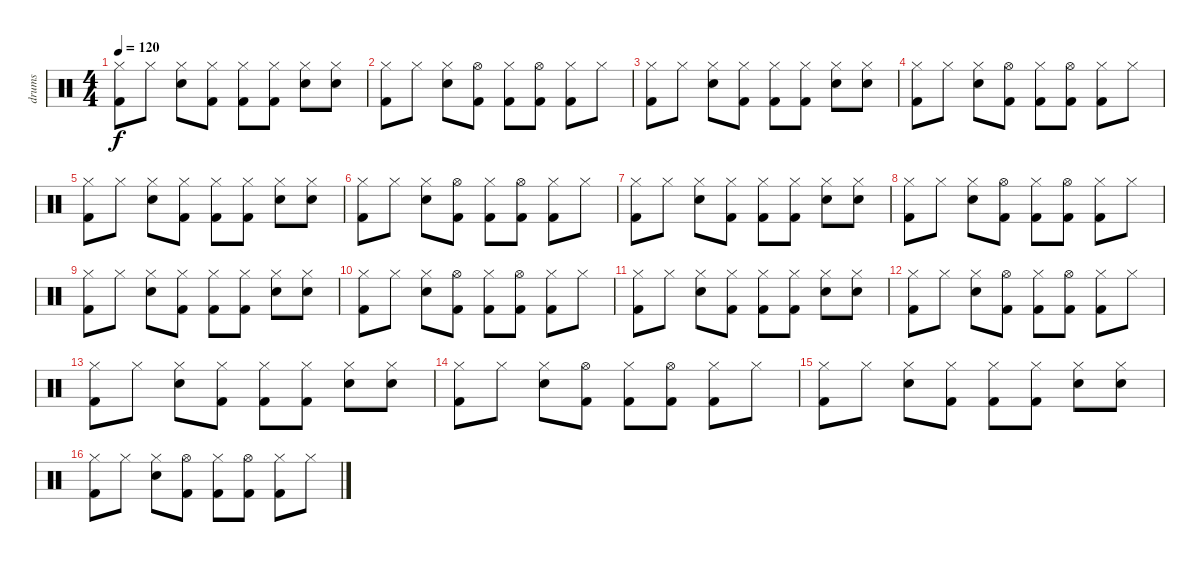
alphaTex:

\track ("drums" "drums") {instrument percussion}
\staff {score}
\articulation defaults
\ts (4 4)
\tempo 120
\clef neutral
\ks c
("Hi-Hat (closed)" "Kick (hit) 2").8{dy f} "Hi-Hat (closed)".8 ("Hi-Hat (closed)" "Snare (hit) 2").8 ("Hi-Hat (closed)" "Kick (hit) 2").8 ("Hi-Hat (closed)" "Kick (hit) 2").8 ("Hi-Hat (closed)" "Kick (hit) 2").8 ("Hi-Hat (closed)" "Snare (hit) 2").8 ("Hi-Hat (closed)" "Snare (hit) 2").8 |
("Hi-Hat (closed)" "Kick (hit) 2").8 "Hi-Hat (closed)".8 ("Hi-Hat (closed)" "Snare (hit) 2").8 ("Hi-Hat (open)" "Kick (hit) 2").8 ("Hi-Hat (closed)" "Kick (hit) 2").8 ("Hi-Hat (open)" "Kick (hit) 2").8 ("Hi-Hat (closed)" "Kick (hit) 2").8 "Hi-Hat (closed)".8 |
("Hi-Hat (closed)" "Kick (hit) 2").8 "Hi-Hat (closed)".8 ("Hi-Hat (closed)" "Snare (hit) 2").8 ("Hi-Hat (closed)" "Kick (hit) 2").8 ("Hi-Hat (closed)" "Kick (hit) 2").8 ("Hi-Hat (closed)" "Kick (hit) 2").8 ("Hi-Hat (closed)" "Snare (hit) 2").8 ("Hi-Hat (closed)" "Snare (hit) 2").8 |
("Hi-Hat (closed)" "Kick (hit) 2").8 "Hi-Hat (closed)".8 ("Hi-Hat (closed)" "Snare (hit) 2").8 ("Hi-Hat (open)" "Kick (hit) 2").8 ("Hi-Hat (closed)" "Kick (hit) 2").8 ("Hi-Hat (open)" "Kick (hit) 2").8 ("Hi-Hat (closed)" "Kick (hit) 2").8 "Hi-Hat (closed)".8 |
("Hi-Hat (closed)" "Kick (hit) 2").8 "Hi-Hat (closed)".8 ("Hi-Hat (closed)" "Snare (hit) 2").8 ("Hi-Hat (closed)" "Kick (hit) 2").8 ("Hi-Hat (closed)" "Kick (hit) 2").8 ("Hi-Hat (closed)" "Kick (hit) 2").8 ("Hi-Hat (closed)" "Snare (hit) 2").8 ("Hi-Hat (closed)" "Snare (hit) 2").8 |
("Hi-Hat (closed)" "Kick (hit) 2").8 "Hi-Hat (closed)".8 ("Hi-Hat (closed)" "Snare (hit) 2").8 ("Hi-Hat (open)" "Kick (hit) 2").8 ("Hi-Hat (closed)" "Kick (hit) 2").8 ("Hi-Hat (open)" "Kick (hit) 2").8 ("Hi-Hat (closed)" "Kick (hit) 2").8 "Hi-Hat (closed)".8 |
("Hi-Hat (closed)" "Kick (hit) 2").8 "Hi-Hat (closed)".8 ("Hi-Hat (closed)" "Snare (hit) 2").8 ("Hi-Hat (closed)" "Kick (hit) 2").8 ("Hi-Hat (closed)" "Kick (hit) 2").8 ("Hi-Hat (closed)" "Kick (hit) 2").8 ("Hi-Hat (closed)" "Snare (hit) 2").8 ("Hi-Hat (closed)" "Snare (hit) 2").8 |
("Hi-Hat (closed)" "Kick (hit) 2").8 "Hi-Hat (closed)".8 ("Hi-Hat (closed)" "Snare (hit) 2").8 ("Hi-Hat (open)" "Kick (hit) 2").8 ("Hi-Hat (closed)" "Kick (hit) 2").8 ("Hi-Hat (open)" "Kick (hit) 2").8 ("Hi-Hat (closed)" "Kick (hit) 2").8 "Hi-Hat (closed)".8 |
("Hi-Hat (closed)" "Kick (hit) 2").8 "Hi-Hat (closed)".8 ("Hi-Hat (closed)" "Snare (hit) 2").8 ("Hi-Hat (closed)" "Kick (hit) 2").8 ("Hi-Hat (closed)" "Kick (hit) 2").8 ("Hi-Hat (closed)" "Kick (hit) 2").8 ("Hi-Hat (closed)" "Snare (hit) 2").8 ("Hi-Hat (closed)" "Snare (hit) 2").8 |
("Hi-Hat (closed)" "Kick (hit) 2").8 "Hi-Hat (closed)".8 ("Hi-Hat (closed)" "Snare (hit) 2").8 ("Hi-Hat (open)" "Kick (hit) 2").8 ("Hi-Hat (closed)" "Kick (hit) 2").8 ("Hi-Hat (open)" "Kick (hit) 2").8 ("Hi-Hat (closed)" "Kick (hit) 2").8 "Hi-Hat (closed)".8 |
("Hi-Hat (closed)" "Kick (hit) 2").8 "Hi-Hat (closed)".8 ("Hi-Hat (closed)" "Snare (hit) 2").8 ("Hi-Hat (closed)" "Kick (hit) 2").8 ("Hi-Hat (closed)" "Kick (hit) 2").8 ("Hi-Hat (closed)" "Kick (hit) 2").8 ("Hi-Hat (closed)" "Snare (hit) 2").8 ("Hi-Hat (closed)" "Snare (hit) 2").8 |
("Hi-Hat (closed)" "Kick (hit) 2").8 "Hi-Hat (closed)".8 ("Hi-Hat (closed)" "Snare (hit) 2").8 ("Hi-Hat (open)" "Kick (hit) 2").8 ("Hi-Hat (closed)" "Kick (hit) 2").8 ("Hi-Hat (open)" "Kick (hit) 2").8 ("Hi-Hat (closed)" "Kick (hit) 2").8 "Hi-Hat (closed)".8 |
("Hi-Hat (closed)" "Kick (hit) 2").8 "Hi-Hat (closed)".8 ("Hi-Hat (closed)" "Snare (hit) 2").8 ("Hi-Hat (closed)" "Kick (hit) 2").8 ("Hi-Hat (closed)" "Kick (hit) 2").8 ("Hi-Hat (closed)" "Kick (hit) 2").8 ("Hi-Hat (closed)" "Snare (hit) 2").8 ("Hi-Hat (closed)" "Snare (hit) 2").8 |
("Hi-Hat (closed)" "Kick (hit) 2").8 "Hi-Hat (closed)".8 ("Hi-Hat (closed)" "Snare (hit) 2").8 ("Hi-Hat (open)" "Kick (hit) 2").8 ("Hi-Hat (closed)" "Kick (hit) 2").8 ("Hi-Hat (open)" "Kick (hit) 2").8 ("Hi-Hat (closed)" "Kick (hit) 2").8 "Hi-Hat (closed)".8 |
("Hi-Hat (closed)" "Kick (hit) 2").8 "Hi-Hat (closed)".8 ("Hi-Hat (closed)" "Snare (hit) 2").8 ("Hi-Hat (closed)" "Kick (hit) 2").8 ("Hi-Hat (closed)" "Kick (hit) 2").8 ("Hi-Hat (closed)" "Kick (hit) 2").8 ("Hi-Hat (closed)" "Snare (hit) 2").8 ("Hi-Hat (closed)" "Snare (hit) 2").8 |
("Hi-Hat (closed)" "Kick (hit) 2").8 "Hi-Hat (closed)".8 ("Hi-Hat (closed)" "Snare (hit) 2").8 ("Hi-Hat (open)" "Kick (hit) 2").8 ("Hi-Hat (closed)" "Kick (hit) 2").8 ("Hi-Hat (open)" "Kick (hit) 2").8 ("Hi-Hat (closed)" "Kick (hit) 2").8 "Hi-Hat (closed)".8
